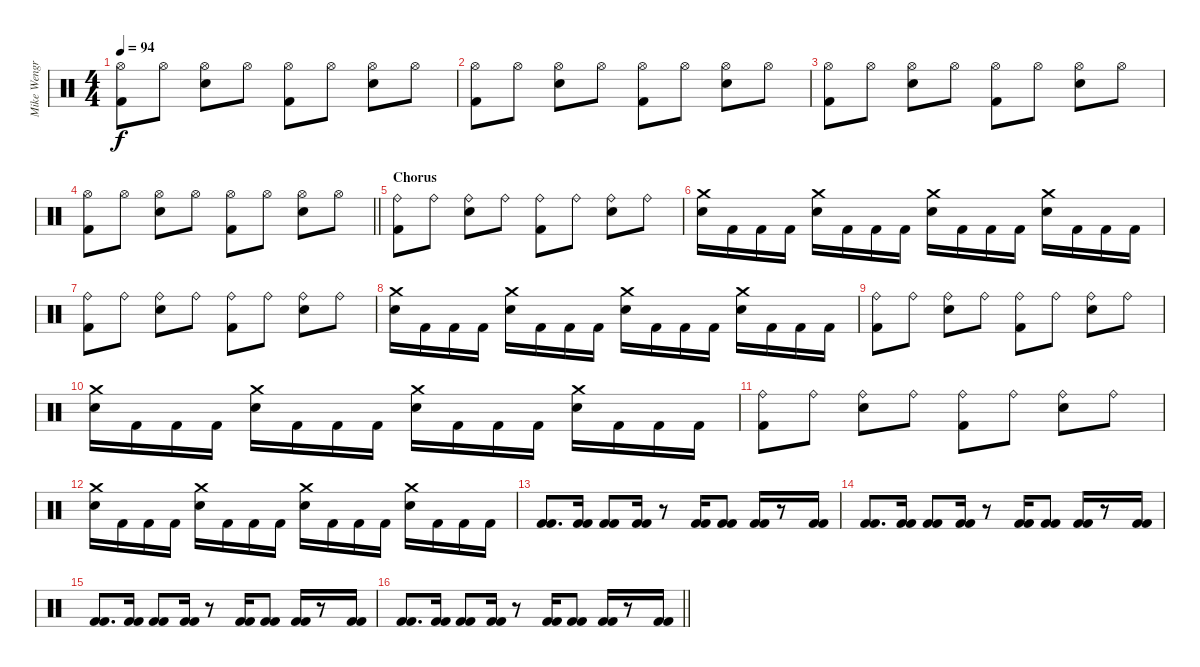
\track ("Mike Wengren" "Mike Wengr") {instrument percussion}
\staff {score}
\articulation defaults
\ts (4 4)
\tempo 94
\clef neutral
\ks c
("Kick (hit) 2" "Hi-Hat (open)").8{dy f} "Hi-Hat (open)".8 ("Electric Snare (hit)" "Hi-Hat (open)").8 "Hi-Hat (open)".8 ("Kick (hit) 2" "Hi-Hat (open)").8 "Hi-Hat (open)".8 ("Electric Snare (hit)" "Hi-Hat (open)").8 "Hi-Hat (open)".8 |
("Kick (hit) 2" "Hi-Hat (open)").8 "Hi-Hat (open)".8 ("Electric Snare (hit)" "Hi-Hat (open)").8 "Hi-Hat (open)".8 ("Kick (hit) 2" "Hi-Hat (open)").8 "Hi-Hat (open)".8 ("Electric Snare (hit)" "Hi-Hat (open)").8 "Hi-Hat (open)".8 |
("Kick (hit) 2" "Hi-Hat (open)").8 "Hi-Hat (open)".8 ("Electric Snare (hit)" "Hi-Hat (open)").8 "Hi-Hat (open)".8 ("Kick (hit) 2" "Hi-Hat (open)").8 "Hi-Hat (open)".8 ("Electric Snare (hit)" "Hi-Hat (open)").8 "Hi-Hat (open)".8 |
\barLineRight lightlight
("Kick (hit) 2" "Hi-Hat (open)").8 "Hi-Hat (open)".8 ("Electric Snare (hit)" "Hi-Hat (open)").8 "Hi-Hat (open)".8 ("Kick (hit) 2" "Hi-Hat (open)").8 "Hi-Hat (open)".8 ("Electric Snare (hit)" "Hi-Hat (open)").8 "Hi-Hat (open)".8 |
\section ("" "Chorus")
("Kick (hit) 2" "Ride (bell)").8 "Ride (bell)".8 ("Electric Snare (hit)" "Ride (bell)").8 "Ride (bell)".8 ("Kick (hit) 2" "Ride (bell)").8 "Ride (bell)".8 ("Electric Snare (hit)" "Ride (bell)").8 "Ride (bell)".8 |
("Electric Snare (hit)" "Crash medium (hit)").16 "Kick (hit) 2".16 "Kick (hit) 2".16 "Kick (hit) 2".16 ("Electric Snare (hit)" "Crash medium (hit)").16 "Kick (hit) 2".16 "Kick (hit) 2".16 "Kick (hit) 2".16 ("Electric Snare (hit)" "Crash medium (hit)").16 "Kick (hit) 2".16 "Kick (hit) 2".16 "Kick (hit) 2".16 ("Electric Snare (hit)" "Crash medium (hit)").16 "Kick (hit) 2".16 "Kick (hit) 2".16 "Kick (hit) 2".16 |
("Kick (hit) 2" "Ride (bell)").8 "Ride (bell)".8 ("Electric Snare (hit)" "Ride (bell)").8 "Ride (bell)".8 ("Kick (hit) 2" "Ride (bell)").8 "Ride (bell)".8 ("Electric Snare (hit)" "Ride (bell)").8 "Ride (bell)".8 |
("Electric Snare (hit)" "Crash medium (hit)").16 "Kick (hit) 2".16 "Kick (hit) 2".16 "Kick (hit) 2".16 ("Electric Snare (hit)" "Crash medium (hit)").16 "Kick (hit) 2".16 "Kick (hit) 2".16 "Kick (hit) 2".16 ("Electric Snare (hit)" "Crash medium (hit)").16 "Kick (hit) 2".16 "Kick (hit) 2".16 "Kick (hit) 2".16 ("Electric Snare (hit)" "Crash medium (hit)").16 "Kick (hit) 2".16 "Kick (hit) 2".16 "Kick (hit) 2".16 |
("Kick (hit) 2" "Ride (bell)").8 "Ride (bell)".8 ("Electric Snare (hit)" "Ride (bell)").8 "Ride (bell)".8 ("Kick (hit) 2" "Ride (bell)").8 "Ride (bell)".8 ("Electric Snare (hit)" "Ride (bell)").8 "Ride (bell)".8 |
("Electric Snare (hit)" "Crash medium (hit)").16 "Kick (hit) 2".16 "Kick (hit) 2".16 "Kick (hit) 2".16 ("Electric Snare (hit)" "Crash medium (hit)").16 "Kick (hit) 2".16 "Kick (hit) 2".16 "Kick (hit) 2".16 ("Electric Snare (hit)" "Crash medium (hit)").16 "Kick (hit) 2".16 "Kick (hit) 2".16 "Kick (hit) 2".16 ("Electric Snare (hit)" "Crash medium (hit)").16 "Kick (hit) 2".16 "Kick (hit) 2".16 "Kick (hit) 2".16 |
("Kick (hit) 2" "Ride (bell)").8 "Ride (bell)".8 ("Electric Snare (hit)" "Ride (bell)").8 "Ride (bell)".8 ("Kick (hit) 2" "Ride (bell)").8 "Ride (bell)".8 ("Electric Snare (hit)" "Ride (bell)").8 "Ride (bell)".8 |
("Electric Snare (hit)" "Crash medium (hit)").16 "Kick (hit) 2".16 "Kick (hit) 2".16 "Kick (hit) 2".16 ("Electric Snare (hit)" "Crash medium (hit)").16 "Kick (hit) 2".16 "Kick (hit) 2".16 "Kick (hit) 2".16 ("Electric Snare (hit)" "Crash medium (hit)").16 "Kick (hit) 2".16 "Kick (hit) 2".16 "Kick (hit) 2".16 ("Electric Snare (hit)" "Crash medium (hit)").16 "Kick (hit) 2".16 "Kick (hit) 2".16 "Kick (hit) 2".16 |
("Kick (hit) 2" "Kick (hit) 2").8{d} ("Kick (hit) 2" "Kick (hit) 2").16 ("Kick (hit) 2" "Kick (hit) 2").8 ("Kick (hit) 2" "Kick (hit) 2").16 r.8 ("Kick (hit) 2" "Kick (hit) 2").16 ("Kick (hit) 2" "Kick (hit) 2").8 ("Kick (hit) 2" "Kick (hit) 2").16 r.8 ("Kick (hit) 2" "Kick (hit) 2").16 |
("Kick (hit) 2" "Kick (hit) 2").8{d} ("Kick (hit) 2" "Kick (hit) 2").16 ("Kick (hit) 2" "Kick (hit) 2").8 ("Kick (hit) 2" "Kick (hit) 2").16 r.8 ("Kick (hit) 2" "Kick (hit) 2").16 ("Kick (hit) 2" "Kick (hit) 2").8 ("Kick (hit) 2" "Kick (hit) 2").16 r.8 ("Kick (hit) 2" "Kick (hit) 2").16 |
("Kick (hit) 2" "Kick (hit) 2").8{d} ("Kick (hit) 2" "Kick (hit) 2").16 ("Kick (hit) 2" "Kick (hit) 2").8 ("Kick (hit) 2" "Kick (hit) 2").16 r.8 ("Kick (hit) 2" "Kick (hit) 2").16 ("Kick (hit) 2" "Kick (hit) 2").8 ("Kick (hit) 2" "Kick (hit) 2").16 r.8 ("Kick (hit) 2" "Kick (hit) 2").16 |
\barLineRight lightlight
("Kick (hit) 2" "Kick (hit) 2").8{d} ("Kick (hit) 2" "Kick (hit) 2").16 ("Kick (hit) 2" "Kick (hit) 2").8 ("Kick (hit) 2" "Kick (hit) 2").16 r.8 ("Kick (hit) 2" "Kick (hit) 2").16 ("Kick (hit) 2" "Kick (hit) 2").8 ("Kick (hit) 2" "Kick (hit) 2").16 r.8 ("Kick (hit) 2" "Kick (hit) 2").16
